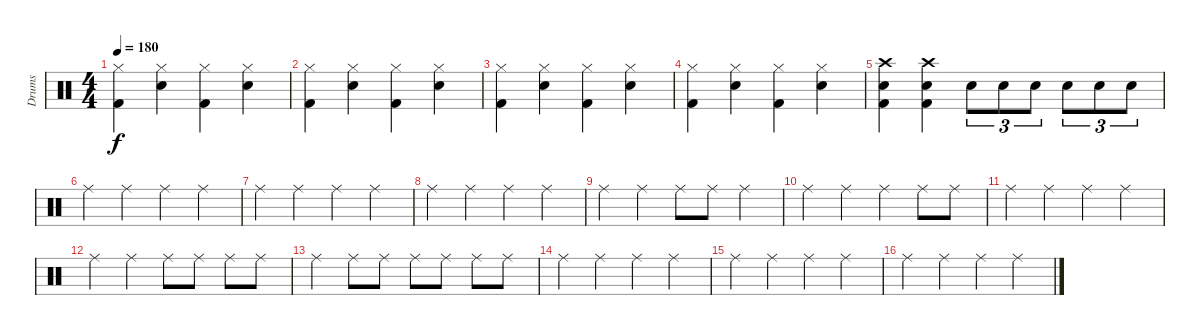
\track ("Drums" "Drums") {instrument percussion}
\staff {score}
\articulation defaults
\ts (4 4)
\tempo 180
\clef neutral
\ks c
("Hi-Hat (closed)" "Kick (hit) 2").4{dy f} ("Hi-Hat (closed)" "Snare (hit) 2").4 ("Hi-Hat (closed)" "Kick (hit) 2").4 ("Hi-Hat (closed)" "Snare (hit) 2").4 |
("Hi-Hat (closed)" "Kick (hit) 2").4 ("Hi-Hat (closed)" "Snare (hit) 2").4 ("Hi-Hat (closed)" "Kick (hit) 2").4 ("Hi-Hat (closed)" "Snare (hit) 2").4 |
("Hi-Hat (closed)" "Kick (hit) 2").4 ("Hi-Hat (closed)" "Snare (hit) 2").4 ("Hi-Hat (closed)" "Kick (hit) 2").4 ("Hi-Hat (closed)" "Snare (hit) 2").4 |
("Hi-Hat (closed)" "Kick (hit) 2").4 ("Hi-Hat (closed)" "Snare (hit) 2").4 ("Hi-Hat (closed)" "Kick (hit) 2").4 ("Hi-Hat (closed)" "Snare (hit) 2").4 |
("Crash high (hit)" "Snare (hit) 2" "Kick (hit) 2").4 ("Crash high (hit)" "Snare (hit) 2" "Kick (hit) 2").4 "Snare (hit) 2".8{tu (3 2)} "Snare (hit) 2".8{tu (3 2)} "Snare (hit) 2".8{tu (3 2)} "Snare (hit) 2".8{tu (3 2)} "Snare (hit) 2".8{tu (3 2)} "Snare (hit) 2".8{tu (3 2)} |
"Ride (middle)".4 "Ride (middle)".4 "Ride (middle)".4 "Ride (middle)".4 |
"Ride (middle)".4 "Ride (middle)".4 "Ride (middle)".4 "Ride (middle)".4 |
"Ride (middle)".4 "Ride (middle)".4 "Ride (middle)".4 "Ride (middle)".4 |
"Ride (middle)".4 "Ride (middle)".4 "Ride (middle)".8 "Ride (middle)".8 "Ride (middle)".4 |
"Ride (middle)".4 "Ride (middle)".4 "Ride (middle)".4 "Ride (middle)".8 "Ride (middle)".8 |
"Ride (middle)".4 "Ride (middle)".4 "Ride (middle)".4 "Ride (middle)".4 |
"Ride (middle)".4 "Ride (middle)".4 "Ride (middle)".8 "Ride (middle)".8 "Ride (middle)".8 "Ride (middle)".8 |
"Ride (middle)".4 "Ride (middle)".8 "Ride (middle)".8 "Ride (middle)".8 "Ride (middle)".8 "Ride (middle)".8 "Ride (middle)".8 |
"Ride (middle)".4 "Ride (middle)".4 "Ride (middle)".4 "Ride (middle)".4 |
"Ride (middle)".4 "Ride (middle)".4 "Ride (middle)".4 "Ride (middle)".4 |
"Ride (middle)".4 "Ride (middle)".4 "Ride (middle)".4 "Ride (middle)".4
